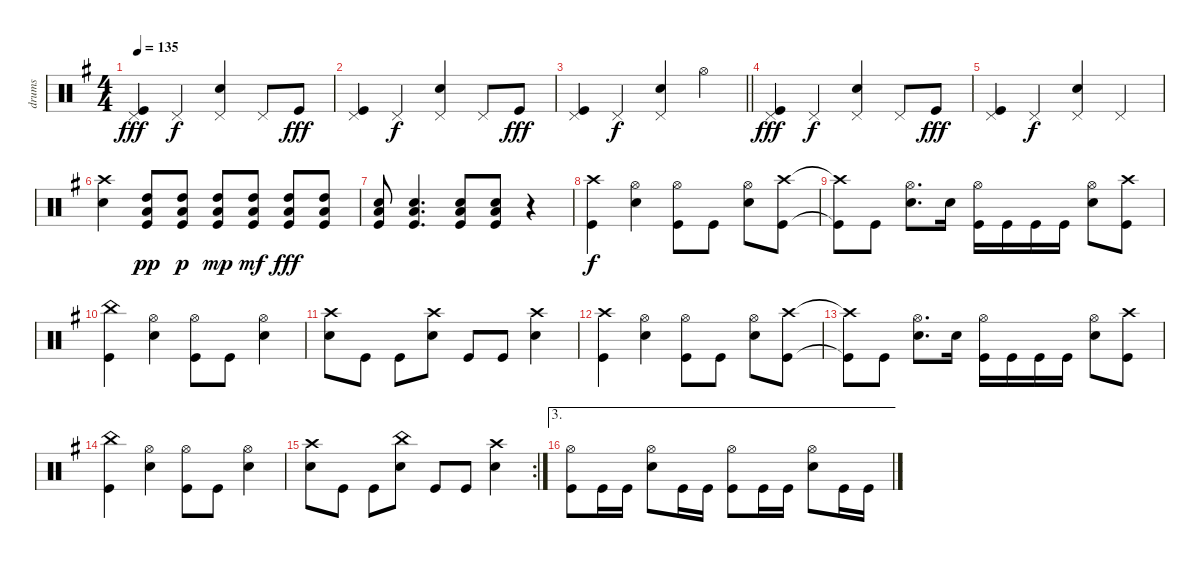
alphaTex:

\track ("drums" "drums") {instrument percussion}
\staff {score}
\articulation defaults
\ts (4 4)
\tempo 135
\clef neutral
\ks eminor
("Pedal Hi-Hat (hit)" "Kick (hit)").4{dy fff} "Pedal Hi-Hat (hit)".4{dy f} ("Pedal Hi-Hat (hit)" "Snare (hit) 2").4 "Pedal Hi-Hat (hit)".8 "Kick (hit)".8{dy fff} |
("Pedal Hi-Hat (hit)" "Kick (hit)").4 "Pedal Hi-Hat (hit)".4{dy f} ("Pedal Hi-Hat (hit)" "Snare (hit) 2").4 "Pedal Hi-Hat (hit)".8 "Kick (hit)".8{dy fff} |
\barLineRight lightlight
("Pedal Hi-Hat (hit)" "Kick (hit)").4 "Pedal Hi-Hat (hit)".4{dy f} ("Pedal Hi-Hat (hit)" "Snare (hit) 2").4 "Hi-Hat (open)".4 |
("Pedal Hi-Hat (hit)" "Kick (hit)").4{dy fff} "Pedal Hi-Hat (hit)".4{dy f} ("Pedal Hi-Hat (hit)" "Snare (hit) 2").4 "Pedal Hi-Hat (hit)".8 "Kick (hit)".8{dy fff} |
("Pedal Hi-Hat (hit)" "Kick (hit)").4 "Pedal Hi-Hat (hit)".4{dy f} ("Pedal Hi-Hat (hit)" "Snare (hit) 2").4 "Pedal Hi-Hat (hit)".4 |
("Crash high (hit)" "Snare (hit) 2").4 ("High Tom (hit)" "Low Floor Tom (hit)" "Kick (hit)").8{dy pp} ("High Tom (hit)" "Low Floor Tom (hit)" "Kick (hit)").8{dy p} ("High Tom (hit)" "Low Floor Tom (hit)" "Kick (hit)").8{dy mp} ("High Tom (hit)" "Low Floor Tom (hit)" "Kick (hit)").8{dy mf} ("High Tom (hit)" "Low Floor Tom (hit)" "Kick (hit)").8{dy fff} ("High Tom (hit)" "Low Floor Tom (hit)" "Kick (hit)").8 |
("Low Floor Tom (hit)" "Snare (hit) 2" "Kick (hit)").8 ("Low Floor Tom (hit)" "Snare (hit) 2" "Kick (hit)").4{d} ("Low Floor Tom (hit)" "Snare (hit) 2" "Kick (hit)").8 ("Low Floor Tom (hit)" "Snare (hit) 2" "Kick (hit)").8 r.4 |
("Crash high (hit)" "Kick (hit)").4{dy f} ("Hi-Hat (open)" "Snare (hit) 2").4 ("Hi-Hat (open)" "Kick (hit)").8 "Kick (hit)".8 ("Hi-Hat (open)" "Snare (hit) 2").8 ("Crash high (hit)" "Kick (hit)").8 |
("Crash high (hit)"{t} "Kick (hit)"{t}).8 "Kick (hit)".8 ("Hi-Hat (open)" "Snare (hit) 2").8{d} "Snare (hit) 2".16 ("Hi-Hat (open)" "Kick (hit)").16 "Kick (hit)".16 "Kick (hit)".16 "Kick (hit)".16 ("Hi-Hat (open)" "Snare (hit) 2").8 ("Crash high (hit)" "Kick (hit)").8 |
("China (hit)" "Kick (hit)").4 ("Hi-Hat (open)" "Snare (hit) 2").4 ("Hi-Hat (open)" "Kick (hit)").8 "Kick (hit)".8 ("Hi-Hat (open)" "Snare (hit) 2").4 |
("Crash high (hit)" "Snare (hit) 2").8 "Kick (hit)".8 "Kick (hit)".8 ("Crash high (hit)" "Snare (hit) 2").8 "Kick (hit)".8 "Kick (hit)".8 ("Crash high (hit)" "Snare (hit) 2").4 |
("Crash high (hit)" "Kick (hit)").4 ("Hi-Hat (open)" "Snare (hit) 2").4 ("Hi-Hat (open)" "Kick (hit)").8 "Kick (hit)".8 ("Hi-Hat (open)" "Snare (hit) 2").8 ("Crash high (hit)" "Kick (hit)").8 |
("Crash high (hit)"{t} "Kick (hit)"{t}).8 "Kick (hit)".8 ("Hi-Hat (open)" "Snare (hit) 2").8{d} "Snare (hit) 2".16 ("Hi-Hat (open)" "Kick (hit)").16 "Kick (hit)".16 "Kick (hit)".16 "Kick (hit)".16 ("Hi-Hat (open)" "Snare (hit) 2").8 ("Crash high (hit)" "Kick (hit)").8 |
("China (hit)" "Kick (hit)").4 ("Hi-Hat (open)" "Snare (hit) 2").4 ("Hi-Hat (open)" "Kick (hit)").8 "Kick (hit)".8 ("Hi-Hat (open)" "Snare (hit) 2").4 |
\rc 2
("Crash high (hit)" "Snare (hit) 2").8 "Kick (hit)".8 "Kick (hit)".8 ("China (hit)" "Snare (hit) 2").8 "Kick (hit)".8 "Kick (hit)".8 ("Crash high (hit)" "Snare (hit) 2").4 |
\ae 3
("Hi-Hat (open)" "Kick (hit)").8 "Kick (hit)".16 "Kick (hit)".16 ("Hi-Hat (open)" "Snare (hit) 2").8 "Kick (hit)".16 "Kick (hit)".16 ("Hi-Hat (open)" "Kick (hit)").8 "Kick (hit)".16 "Kick (hit)".16 ("Hi-Hat (open)" "Snare (hit) 2").8 "Kick (hit)".16 "Kick (hit)".16
